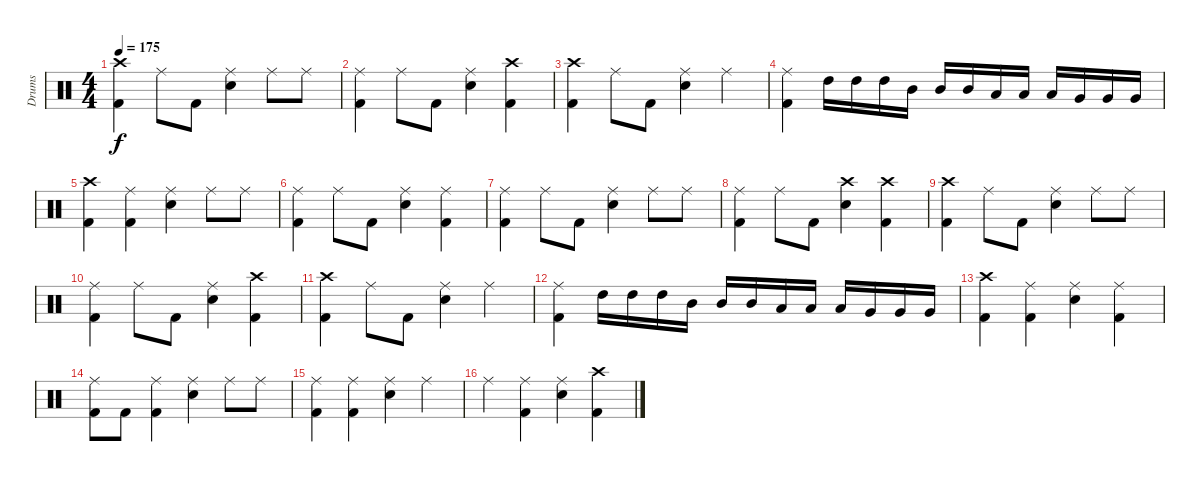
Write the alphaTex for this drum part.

\track ("Drums" "Drums") {mute instrument percussion}
\staff {score}
\articulation defaults
\ts (4 4)
\tempo 175
\clef neutral
\ks c
("Crash high (hit)" "Kick (hit) 2").4{dy f} "Ride (middle)".8 "Kick (hit) 2".8 ("Ride (middle)" "Electric Snare (hit)").4 "Ride (middle)".8 "Ride (middle)".8 |
("Ride (middle)" "Kick (hit) 2").4 "Ride (middle)".8 "Kick (hit) 2".8 ("Ride (middle)" "Electric Snare (hit)").4 ("Crash high (hit)" "Kick (hit) 2").4 |
("Crash high (hit)" "Kick (hit) 2").4 "Ride (middle)".8 "Kick (hit) 2".8 ("Ride (middle)" "Electric Snare (hit)").4 "Ride (middle)".4 |
("Ride (middle)" "Kick (hit) 2").4 "High Tom (hit)".16 "High Tom (hit)".16 "High Tom (hit)".16 "Mid Tom (hit)".16 "Mid Tom (hit)".16 "Mid Tom (hit)".16 "Low Tom (hit)".16 "Low Tom (hit)".16 "Low Tom (hit)".16 "Very Low Tom (hit)".16 "Very Low Tom (hit)".16 "Very Low Tom (hit)".16 |
("Crash high (hit)" "Kick (hit) 2").4 ("Ride (middle)" "Kick (hit) 2").4 ("Ride (middle)" "Electric Snare (hit)").4 "Ride (middle)".8 "Ride (middle)".8 |
("Ride (middle)" "Kick (hit) 2").4 "Ride (middle)".8 "Kick (hit) 2".8 ("Ride (middle)" "Electric Snare (hit)").4 ("Ride (middle)" "Kick (hit) 2").4 |
("Ride (middle)" "Kick (hit) 2").4 "Ride (middle)".8 "Kick (hit) 2".8 ("Ride (middle)" "Electric Snare (hit)").4 "Ride (middle)".8 "Ride (middle)".8 |
("Ride (middle)" "Kick (hit) 2").4 "Ride (middle)".8 "Kick (hit) 2".8 ("Crash high (hit)" "Electric Snare (hit)").4 ("Crash high (hit)" "Kick (hit) 2").4 |
("Crash high (hit)" "Kick (hit) 2").4 "Ride (middle)".8 "Kick (hit) 2".8 ("Ride (middle)" "Electric Snare (hit)").4 "Ride (middle)".8 "Ride (middle)".8 |
("Ride (middle)" "Kick (hit) 2").4 "Ride (middle)".8 "Kick (hit) 2".8 ("Ride (middle)" "Electric Snare (hit)").4 ("Crash high (hit)" "Kick (hit) 2").4 |
("Crash high (hit)" "Kick (hit) 2").4 "Ride (middle)".8 "Kick (hit) 2".8 ("Ride (middle)" "Electric Snare (hit)").4 "Ride (middle)".4 |
("Ride (middle)" "Kick (hit) 2").4 "High Tom (hit)".16 "High Tom (hit)".16 "High Tom (hit)".16 "Mid Tom (hit)".16 "Mid Tom (hit)".16 "Mid Tom (hit)".16 "Low Tom (hit)".16 "Low Tom (hit)".16 "Low Tom (hit)".16 "Very Low Tom (hit)".16 "Very Low Tom (hit)".16 "Very Low Tom (hit)".16 |
("Crash high (hit)" "Kick (hit) 2").4 ("Ride (middle)" "Kick (hit) 2").4 ("Ride (middle)" "Electric Snare (hit)").4 ("Ride (middle)" "Kick (hit) 2").4 |
("Ride (middle)" "Kick (hit) 2").8 "Kick (hit) 2".8 ("Ride (middle)" "Kick (hit) 2").4 ("Ride (middle)" "Electric Snare (hit)").4 "Ride (middle)".8 "Ride (middle)".8 |
("Ride (middle)" "Kick (hit) 2").4 ("Ride (middle)" "Kick (hit) 2").4 ("Ride (middle)" "Electric Snare (hit)").4 "Ride (middle)".4 |
"Ride (middle)".4 ("Ride (middle)" "Kick (hit) 2").4 ("Ride (middle)" "Electric Snare (hit)").4 ("Crash high (hit)" "Kick (hit) 2").4
